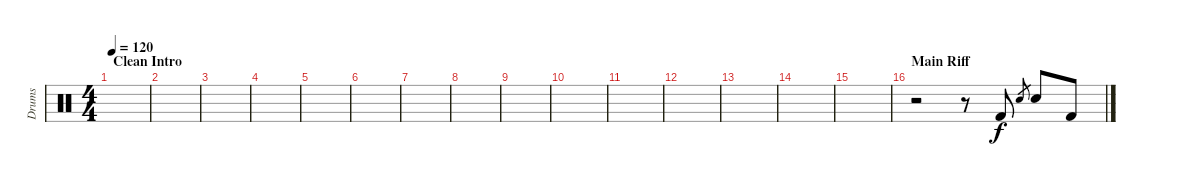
\track ("Drums" "Drums") {instrument percussion}
\staff {score}
\articulation defaults
\ts (4 4)
\section ("" "Clean Intro")
\tempo 120
\clef neutral
\ks c
|
|
|
|
|
|
|
|
|
|
|
|
|
|
|
\section ("" "Main Riff")
r.2 r.8 "Kick (hit) 2".8 "Snare (hit) 2".8{gr} "Snare (hit) 2".8 "Kick (hit) 2".8
